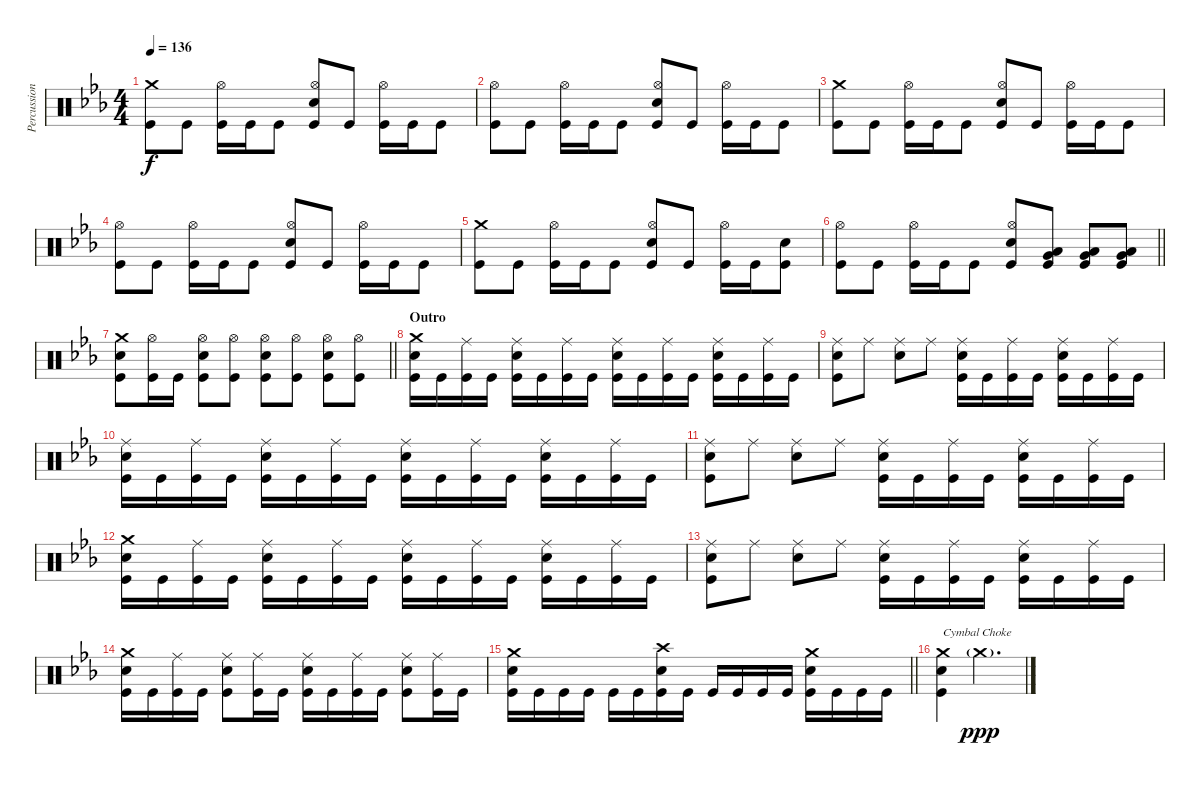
\track ("Percussion" "Percussion") {instrument percussion}
\staff {score}
\articulation defaults
\ts (4 4)
\tempo 136
\clef neutral
\ks eb
("Crash medium (hit)" "Kick (hit)").8{dy f volume 13} "Kick (hit)".8 ("Hi-Hat (open)" "Kick (hit)").16 "Kick (hit)".16 "Kick (hit)".8 ("Hi-Hat (open)" "Electric Snare (hit)" "Kick (hit)").8 "Kick (hit)".8 ("Hi-Hat (open)" "Kick (hit)").16 "Kick (hit)".16 "Kick (hit)".8 |
("Hi-Hat (open)" "Kick (hit)").8 "Kick (hit)".8 ("Hi-Hat (open)" "Kick (hit)").16 "Kick (hit)".16 "Kick (hit)".8 ("Hi-Hat (open)" "Electric Snare (hit)" "Kick (hit)").8 "Kick (hit)".8 ("Hi-Hat (open)" "Kick (hit)").16 "Kick (hit)".16 "Kick (hit)".8 |
("Crash medium (hit)" "Kick (hit)").8 "Kick (hit)".8 ("Hi-Hat (open)" "Kick (hit)").16 "Kick (hit)".16 "Kick (hit)".8 ("Hi-Hat (open)" "Electric Snare (hit)" "Kick (hit)").8 "Kick (hit)".8 ("Hi-Hat (open)" "Kick (hit)").16 "Kick (hit)".16 "Kick (hit)".8 |
("Hi-Hat (open)" "Kick (hit)").8 "Kick (hit)".8 ("Hi-Hat (open)" "Kick (hit)").16 "Kick (hit)".16 "Kick (hit)".8 ("Hi-Hat (open)" "Electric Snare (hit)" "Kick (hit)").8 "Kick (hit)".8 ("Hi-Hat (open)" "Kick (hit)").16 "Kick (hit)".16 "Kick (hit)".8 |
("Crash medium (hit)" "Kick (hit)").8 "Kick (hit)".8 ("Hi-Hat (open)" "Kick (hit)").16 "Kick (hit)".16 "Kick (hit)".8 ("Hi-Hat (open)" "Electric Snare (hit)" "Kick (hit)").8 "Kick (hit)".8 ("Hi-Hat (open)" "Kick (hit)").16 "Kick (hit)".16 ("Electric Snare (hit)" "Kick (hit)").8 |
\barLineRight lightlight
("Hi-Hat (open)" "Kick (hit)").8 "Kick (hit)".8 ("Hi-Hat (open)" "Kick (hit)").16 "Kick (hit)".16 "Kick (hit)".8 ("Hi-Hat (open)" "Electric Snare (hit)" "Kick (hit)").8 ("Low Tom (hit)" "Very Low Tom (hit)" "Kick (hit)").8 ("Low Tom (hit)" "Very Low Tom (hit)" "Kick (hit)").8 ("Low Tom (hit)" "Very Low Tom (hit)" "Kick (hit)").8 |
\section ("" "")
\barLineRight lightlight
("Crash medium (hit)" "Electric Snare (hit)" "Kick (hit)").8 ("Hi-Hat (open)" "Kick (hit)").16 "Kick (hit)".16 ("Hi-Hat (open)" "Electric Snare (hit)" "Kick (hit)").8 ("Hi-Hat (open)" "Kick (hit)").8 ("Hi-Hat (open)" "Electric Snare (hit)" "Kick (hit)").8 ("Hi-Hat (open)" "Kick (hit)").8 ("Hi-Hat (open)" "Electric Snare (hit)" "Kick (hit)").8 ("Hi-Hat (open)" "Kick (hit)").8 |
\section ("" "Outro")
("Crash medium (hit)" "Electric Snare (hit)" "Kick (hit)").16 "Kick (hit)".16 ("Ride (middle)" "Kick (hit)").16 "Kick (hit)".16 ("Ride (middle)" "Electric Snare (hit)" "Kick (hit)").16 "Kick (hit)".16 ("Ride (middle)" "Kick (hit)").16 "Kick (hit)".16 ("Ride (middle)" "Electric Snare (hit)" "Kick (hit)").16 "Kick (hit)".16 ("Ride (middle)" "Kick (hit)").16 "Kick (hit)".16 ("Ride (middle)" "Electric Snare (hit)" "Kick (hit)").16 "Kick (hit)".16 ("Ride (middle)" "Kick (hit)").16 "Kick (hit)".16 |
("Ride (middle)" "Electric Snare (hit)" "Kick (hit)").8 "Ride (middle)".8 ("Ride (middle)" "Electric Snare (hit)").8 "Ride (middle)".8 ("Ride (middle)" "Electric Snare (hit)" "Kick (hit)").16 "Kick (hit)".16 ("Ride (middle)" "Kick (hit)").16 "Kick (hit)".16 ("Ride (middle)" "Electric Snare (hit)" "Kick (hit)").16 "Kick (hit)".16 ("Ride (middle)" "Kick (hit)").16 "Kick (hit)".16 |
("Ride (middle)" "Electric Snare (hit)" "Kick (hit)").16 "Kick (hit)".16 ("Ride (middle)" "Kick (hit)").16 "Kick (hit)".16 ("Ride (middle)" "Electric Snare (hit)" "Kick (hit)").16 "Kick (hit)".16 ("Ride (middle)" "Kick (hit)").16 "Kick (hit)".16 ("Ride (middle)" "Electric Snare (hit)" "Kick (hit)").16 "Kick (hit)".16 ("Ride (middle)" "Kick (hit)").16 "Kick (hit)".16 ("Ride (middle)" "Electric Snare (hit)" "Kick (hit)").16 "Kick (hit)".16 ("Ride (middle)" "Kick (hit)").16 "Kick (hit)".16 |
("Ride (middle)" "Electric Snare (hit)" "Kick (hit)").8 "Ride (middle)".8 ("Ride (middle)" "Electric Snare (hit)").8 "Ride (middle)".8 ("Ride (middle)" "Electric Snare (hit)" "Kick (hit)").16 "Kick (hit)".16 ("Ride (middle)" "Kick (hit)").16 "Kick (hit)".16 ("Ride (middle)" "Electric Snare (hit)" "Kick (hit)").16 "Kick (hit)".16 ("Ride (middle)" "Kick (hit)").16 "Kick (hit)".16 |
("Crash medium (hit)" "Electric Snare (hit)" "Kick (hit)").16 "Kick (hit)".16 ("Ride (middle)" "Kick (hit)").16 "Kick (hit)".16 ("Ride (middle)" "Electric Snare (hit)" "Kick (hit)").16 "Kick (hit)".16 ("Ride (middle)" "Kick (hit)").16 "Kick (hit)".16 ("Ride (middle)" "Electric Snare (hit)" "Kick (hit)").16 "Kick (hit)".16 ("Ride (middle)" "Kick (hit)").16 "Kick (hit)".16 ("Ride (middle)" "Electric Snare (hit)" "Kick (hit)").16 "Kick (hit)".16 ("Ride (middle)" "Kick (hit)").16 "Kick (hit)".16 |
("Ride (middle)" "Electric Snare (hit)" "Kick (hit)").8 "Ride (middle)".8 ("Ride (middle)" "Electric Snare (hit)").8 "Ride (middle)".8 ("Ride (middle)" "Electric Snare (hit)" "Kick (hit)").16 "Kick (hit)".16 ("Ride (middle)" "Kick (hit)").16 "Kick (hit)".16 ("Ride (middle)" "Electric Snare (hit)" "Kick (hit)").16 "Kick (hit)".16 ("Ride (middle)" "Kick (hit)").16 "Kick (hit)".16 |
("Crash medium (hit)" "Electric Snare (hit)" "Kick (hit)").16 "Kick (hit)".16 ("Ride (middle)" "Kick (hit)").16 "Kick (hit)".16 ("Ride (middle)" "Electric Snare (hit)" "Kick (hit)").8 ("Ride (middle)" "Kick (hit)").16 "Kick (hit)".16 ("Ride (middle)" "Electric Snare (hit)" "Kick (hit)").16 "Kick (hit)".16 ("Ride (middle)" "Kick (hit)").16 "Kick (hit)".16 ("Ride (middle)" "Electric Snare (hit)" "Kick (hit)").8 ("Ride (middle)" "Kick (hit)").16 "Kick (hit)".16 |
\barLineRight lightlight
("Crash medium (hit)" "Electric Snare (hit)" "Kick (hit)").16 "Kick (hit)".16 "Kick (hit)".16 "Kick (hit)".16 "Kick (hit)".16 "Kick (hit)".16 ("Crash high (hit)" "Electric Snare (hit)" "Kick (hit)").16 "Kick (hit)".16 "Kick (hit)".16 "Kick (hit)".16 "Kick (hit)".16 "Kick (hit)".16 ("Crash medium (hit)" "Electric Snare (hit)" "Kick (hit)").16 "Kick (hit)".16 "Kick (hit)".16 "Kick (hit)".16 |
("Crash medium (hit)" "Electric Snare (hit)" "Kick (hit)").4{txt "Cymbal Choke"} "Crash medium (hit)"{g}.2{d dy ppp volume 0}
